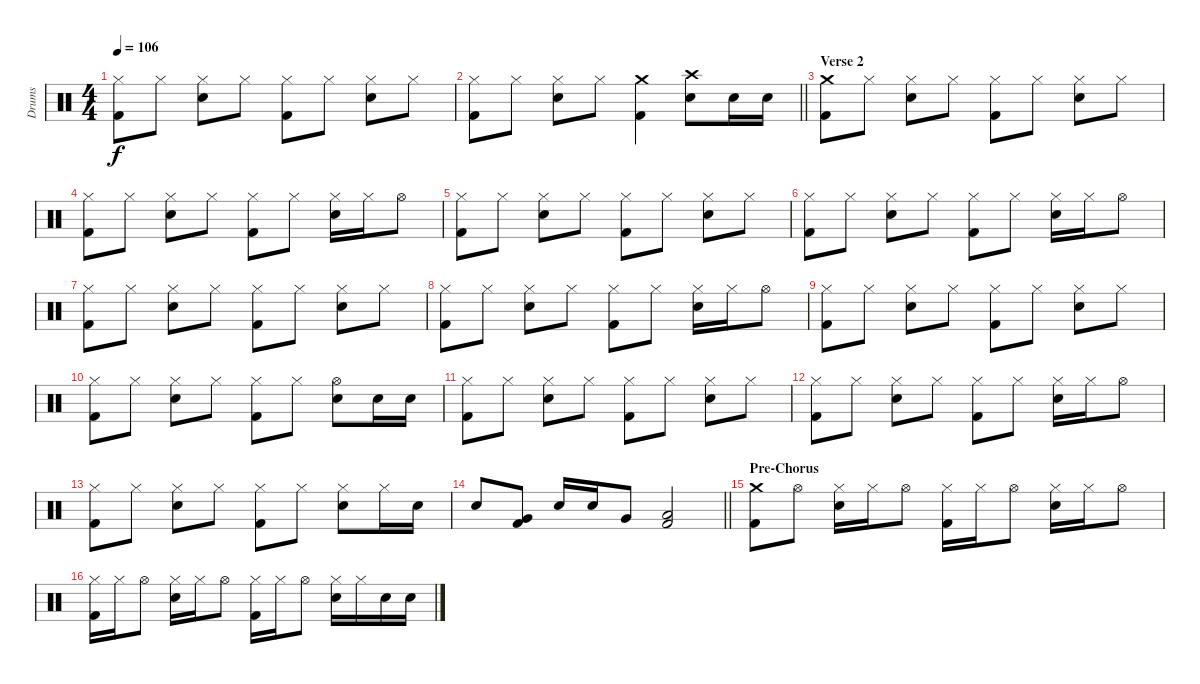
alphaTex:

\track ("Drums" "Drums") {instrument percussion}
\staff {score}
\articulation defaults
\ts (4 4)
\tempo 106
\clef neutral
\ks c
("Hi-Hat (closed)" "Kick (hit) 2").8{dy f} "Hi-Hat (closed)".8 ("Hi-Hat (closed)" "Electric Snare (hit)").8 "Hi-Hat (closed)".8 ("Hi-Hat (closed)" "Kick (hit) 2").8 "Hi-Hat (closed)".8 ("Hi-Hat (closed)" "Electric Snare (hit)").8 "Hi-Hat (closed)".8 |
\barLineRight lightlight
("Hi-Hat (closed)" "Kick (hit) 2").8 "Hi-Hat (closed)".8 ("Hi-Hat (closed)" "Electric Snare (hit)").8 "Hi-Hat (closed)".8 ("Crash medium (hit)" "Kick (hit) 2").4 ("Crash high (hit)" "Electric Snare (hit)").8 "Electric Snare (hit)".16 "Electric Snare (hit)".16 |
\section ("" "Verse 2")
("Crash medium (hit)" "Kick (hit) 2").8 "Hi-Hat (closed)".8 ("Hi-Hat (closed)" "Electric Snare (hit)").8 "Hi-Hat (closed)".8 ("Hi-Hat (closed)" "Kick (hit) 2").8 "Hi-Hat (closed)".8 ("Hi-Hat (closed)" "Electric Snare (hit)").8 "Hi-Hat (closed)".8 |
("Hi-Hat (closed)" "Kick (hit) 2").8 "Hi-Hat (closed)".8 ("Hi-Hat (closed)" "Electric Snare (hit)").8 "Hi-Hat (closed)".8 ("Hi-Hat (closed)" "Kick (hit) 2").8 "Hi-Hat (closed)".8 ("Hi-Hat (closed)" "Electric Snare (hit)").16 "Hi-Hat (closed)".16 "Hi-Hat (open)".8 |
("Hi-Hat (closed)" "Kick (hit) 2").8 "Hi-Hat (closed)".8 ("Hi-Hat (closed)" "Electric Snare (hit)").8 "Hi-Hat (closed)".8 ("Hi-Hat (closed)" "Kick (hit) 2").8 "Hi-Hat (closed)".8 ("Hi-Hat (closed)" "Electric Snare (hit)").8 "Hi-Hat (closed)".8 |
("Hi-Hat (closed)" "Kick (hit) 2").8 "Hi-Hat (closed)".8 ("Hi-Hat (closed)" "Electric Snare (hit)").8 "Hi-Hat (closed)".8 ("Hi-Hat (closed)" "Kick (hit) 2").8 "Hi-Hat (closed)".8 ("Hi-Hat (closed)" "Electric Snare (hit)").16 "Hi-Hat (closed)".16 "Hi-Hat (open)".8 |
("Hi-Hat (closed)" "Kick (hit) 2").8 "Hi-Hat (closed)".8 ("Hi-Hat (closed)" "Electric Snare (hit)").8 "Hi-Hat (closed)".8 ("Hi-Hat (closed)" "Kick (hit) 2").8 "Hi-Hat (closed)".8 ("Hi-Hat (closed)" "Electric Snare (hit)").8 "Hi-Hat (closed)".8 |
("Hi-Hat (closed)" "Kick (hit) 2").8 "Hi-Hat (closed)".8 ("Hi-Hat (closed)" "Electric Snare (hit)").8 "Hi-Hat (closed)".8 ("Hi-Hat (closed)" "Kick (hit) 2").8 "Hi-Hat (closed)".8 ("Hi-Hat (closed)" "Electric Snare (hit)").16 "Hi-Hat (closed)".16 "Hi-Hat (open)".8 |
("Hi-Hat (closed)" "Kick (hit) 2").8 "Hi-Hat (closed)".8 ("Hi-Hat (closed)" "Electric Snare (hit)").8 "Hi-Hat (closed)".8 ("Hi-Hat (closed)" "Kick (hit) 2").8 "Hi-Hat (closed)".8 ("Hi-Hat (closed)" "Electric Snare (hit)").8 "Hi-Hat (closed)".8 |
("Hi-Hat (closed)" "Kick (hit) 2").8 "Hi-Hat (closed)".8 ("Hi-Hat (closed)" "Electric Snare (hit)").8 "Hi-Hat (closed)".8 ("Hi-Hat (closed)" "Kick (hit) 2").8 "Hi-Hat (closed)".8 ("Hi-Hat (open)" "Electric Snare (hit)").8 "Electric Snare (hit)".16 "Electric Snare (hit)".16 |
("Hi-Hat (closed)" "Kick (hit) 2").8 "Hi-Hat (closed)".8 ("Hi-Hat (closed)" "Electric Snare (hit)").8 "Hi-Hat (closed)".8 ("Hi-Hat (closed)" "Kick (hit) 2").8 "Hi-Hat (closed)".8 ("Hi-Hat (closed)" "Electric Snare (hit)").8 "Hi-Hat (closed)".8 |
("Hi-Hat (closed)" "Kick (hit) 2").8 "Hi-Hat (closed)".8 ("Hi-Hat (closed)" "Electric Snare (hit)").8 "Hi-Hat (closed)".8 ("Hi-Hat (closed)" "Kick (hit) 2").8 "Hi-Hat (closed)".8 ("Hi-Hat (closed)" "Electric Snare (hit)").16 "Hi-Hat (closed)".16 "Hi-Hat (open)".8 |
("Hi-Hat (closed)" "Kick (hit) 2").8 "Hi-Hat (closed)".8 ("Hi-Hat (closed)" "Electric Snare (hit)").8 "Hi-Hat (closed)".8 ("Hi-Hat (closed)" "Kick (hit) 2").8 "Hi-Hat (closed)".8 ("Hi-Hat (closed)" "Electric Snare (hit)").8 "Hi-Hat (closed)".16 "Electric Snare (hit)".16 |
\barLineRight lightlight "Electric Snare (hit)".8
("Very Low Tom (hit)" "Kick (hit) 2").8 "Electric Snare (hit)".16 "Electric Snare (hit)".16 "Very Low Tom (hit)".8 ("Low Floor Tom (hit)" "Kick (hit) 2").2 |
\section ("" "Pre-Chorus")
("Crash medium (hit)" "Kick (hit) 2").8 "Hi-Hat (open)".8 ("Hi-Hat (closed)" "Electric Snare (hit)").16 "Hi-Hat (closed)".16 "Hi-Hat (open)".8 ("Hi-Hat (closed)" "Kick (hit) 2").16 "Hi-Hat (closed)".16 "Hi-Hat (open)".8 ("Hi-Hat (closed)" "Electric Snare (hit)").16 "Hi-Hat (closed)".16 "Hi-Hat (open)".8 |
("Hi-Hat (closed)" "Kick (hit) 2").16 "Hi-Hat (closed)".16 "Hi-Hat (open)".8 ("Hi-Hat (closed)" "Electric Snare (hit)").16 "Hi-Hat (closed)".16 "Hi-Hat (open)".8 ("Hi-Hat (closed)" "Kick (hit) 2").16 "Hi-Hat (closed)".16 "Hi-Hat (open)".8 ("Hi-Hat (closed)" "Electric Snare (hit)").16 "Hi-Hat (closed)".16 "Electric Snare (hit)".16 "Electric Snare (hit)".16
